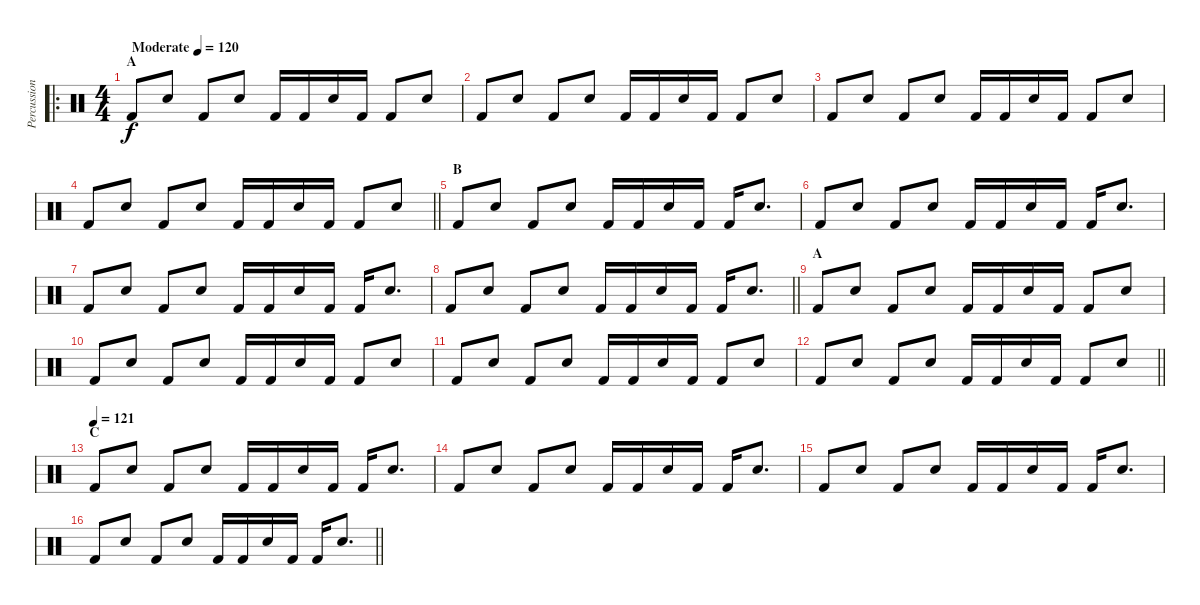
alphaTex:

\track ("Percussion" "Percussion") {instrument percussion}
\staff {score}
\articulation defaults
\ro
\ts (4 4)
\section ("" "A")
\tempo (120 "Moderate")
\clef neutral
\ks c "Kick (hit) 2".8{dy f volume 7} "Snare (hit) 2".8 "Kick (hit) 2".8 "Snare (hit) 2".8 "Kick (hit) 2".16 "Kick (hit) 2".16 "Snare (hit) 2".16 "Kick (hit) 2".16 "Kick (hit) 2".8 "Snare (hit) 2".8
|
"Kick (hit) 2".8 "Snare (hit) 2".8 "Kick (hit) 2".8 "Snare (hit) 2".8 "Kick (hit) 2".16 "Kick (hit) 2".16 "Snare (hit) 2".16 "Kick (hit) 2".16 "Kick (hit) 2".8 "Snare (hit) 2".8 |
"Kick (hit) 2".8 "Snare (hit) 2".8 "Kick (hit) 2".8 "Snare (hit) 2".8 "Kick (hit) 2".16 "Kick (hit) 2".16 "Snare (hit) 2".16 "Kick (hit) 2".16 "Kick (hit) 2".8 "Snare (hit) 2".8 |
\barLineRight lightlight "Kick (hit) 2".8 "Snare (hit) 2".8 "Kick (hit) 2".8 "Snare (hit) 2".8 "Kick (hit) 2".16 "Kick (hit) 2".16 "Snare (hit) 2".16 "Kick (hit) 2".16 "Kick (hit) 2".8 "Snare (hit) 2".8
|
\section ("" "B")
"Kick (hit) 2".8 "Snare (hit) 2".8 "Kick (hit) 2".8 "Snare (hit) 2".8 "Kick (hit) 2".16 "Kick (hit) 2".16 "Snare (hit) 2".16 "Kick (hit) 2".16 "Kick (hit) 2".16 "Snare (hit) 2".8{d} |
"Kick (hit) 2".8 "Snare (hit) 2".8 "Kick (hit) 2".8 "Snare (hit) 2".8 "Kick (hit) 2".16 "Kick (hit) 2".16 "Snare (hit) 2".16 "Kick (hit) 2".16 "Kick (hit) 2".16 "Snare (hit) 2".8{d} |
"Kick (hit) 2".8 "Snare (hit) 2".8 "Kick (hit) 2".8 "Snare (hit) 2".8 "Kick (hit) 2".16 "Kick (hit) 2".16 "Snare (hit) 2".16 "Kick (hit) 2".16 "Kick (hit) 2".16 "Snare (hit) 2".8{d} |
\barLineRight lightlight "Kick (hit) 2".8 "Snare (hit) 2".8 "Kick (hit) 2".8 "Snare (hit) 2".8 "Kick (hit) 2".16 "Kick (hit) 2".16 "Snare (hit) 2".16 "Kick (hit) 2".16 "Kick (hit) 2".16 "Snare (hit) 2".8{d}
|
\section ("" "A")
"Kick (hit) 2".8 "Snare (hit) 2".8 "Kick (hit) 2".8 "Snare (hit) 2".8 "Kick (hit) 2".16 "Kick (hit) 2".16 "Snare (hit) 2".16 "Kick (hit) 2".16 "Kick (hit) 2".8 "Snare (hit) 2".8 |
"Kick (hit) 2".8 "Snare (hit) 2".8 "Kick (hit) 2".8 "Snare (hit) 2".8 "Kick (hit) 2".16 "Kick (hit) 2".16 "Snare (hit) 2".16 "Kick (hit) 2".16 "Kick (hit) 2".8 "Snare (hit) 2".8 |
"Kick (hit) 2".8 "Snare (hit) 2".8 "Kick (hit) 2".8 "Snare (hit) 2".8 "Kick (hit) 2".16 "Kick (hit) 2".16 "Snare (hit) 2".16 "Kick (hit) 2".16 "Kick (hit) 2".8 "Snare (hit) 2".8 |
\barLineRight lightlight "Kick (hit) 2".8 "Snare (hit) 2".8 "Kick (hit) 2".8 "Snare (hit) 2".8 "Kick (hit) 2".16 "Kick (hit) 2".16 "Snare (hit) 2".16 "Kick (hit) 2".16 "Kick (hit) 2".8 "Snare (hit) 2".8
|
\section ("" "C")
\tempo (121)
"Kick (hit) 2".8 "Snare (hit) 2".8 "Kick (hit) 2".8 "Snare (hit) 2".8 "Kick (hit) 2".16 "Kick (hit) 2".16 "Snare (hit) 2".16 "Kick (hit) 2".16 "Kick (hit) 2".16 "Snare (hit) 2".8{d} |
"Kick (hit) 2".8 "Snare (hit) 2".8 "Kick (hit) 2".8 "Snare (hit) 2".8 "Kick (hit) 2".16 "Kick (hit) 2".16 "Snare (hit) 2".16 "Kick (hit) 2".16 "Kick (hit) 2".16 "Snare (hit) 2".8{d} |
"Kick (hit) 2".8 "Snare (hit) 2".8 "Kick (hit) 2".8 "Snare (hit) 2".8 "Kick (hit) 2".16 "Kick (hit) 2".16 "Snare (hit) 2".16 "Kick (hit) 2".16 "Kick (hit) 2".16 "Snare (hit) 2".8{d} |
\barLineRight lightlight "Kick (hit) 2".8 "Snare (hit) 2".8 "Kick (hit) 2".8 "Snare (hit) 2".8 "Kick (hit) 2".16 "Kick (hit) 2".16 "Snare (hit) 2".16 "Kick (hit) 2".16 "Kick (hit) 2".16 "Snare (hit) 2".8{d}
